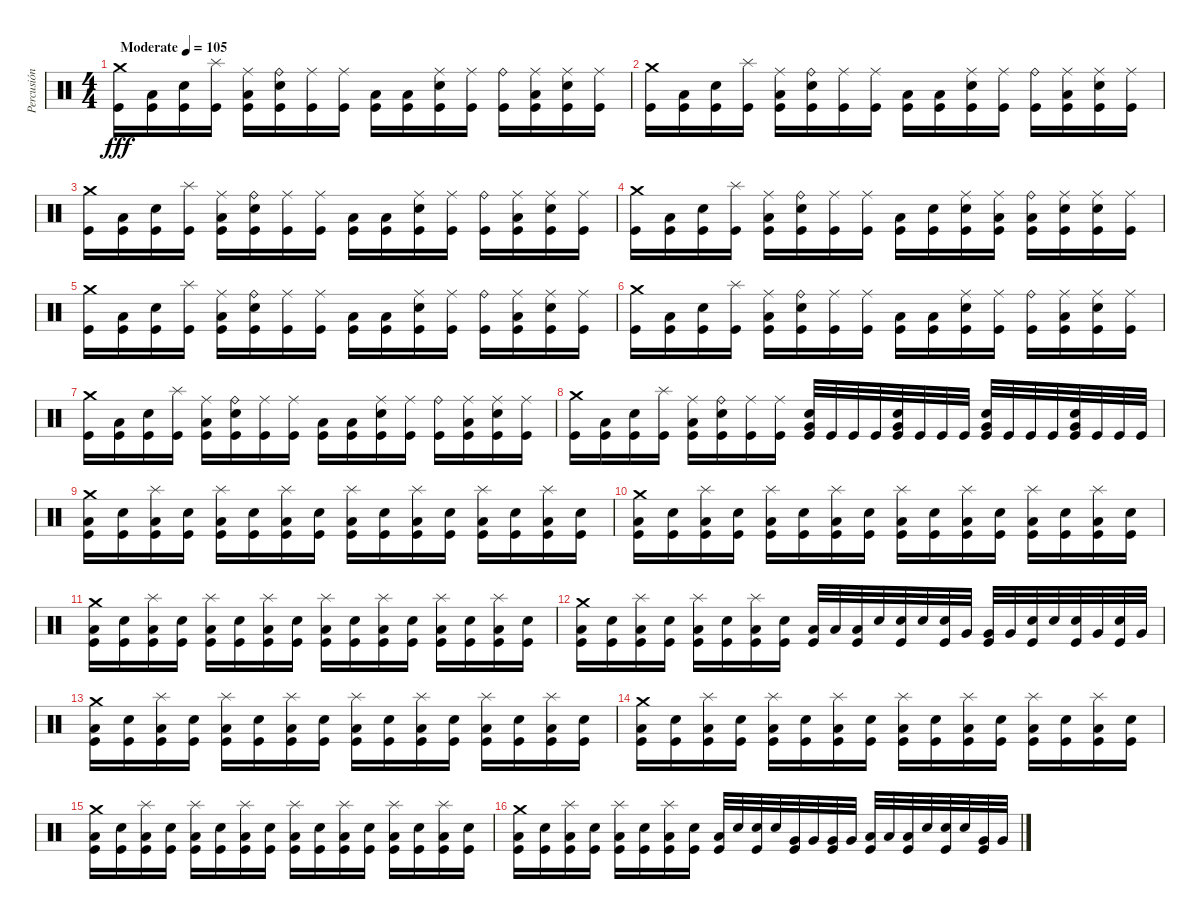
\track ("Percusión" "Percusión") {instrument percussion}
\staff {score}
\articulation defaults
\ts (4 4)
\tempo (105 "Moderate")
\clef neutral
\ks c
("Crash medium (hit)" "Kick (hit)").16{dy fff} ("Low Floor Tom (hit)" "Kick (hit)").16 ("Snare (hit) 2" "Kick (hit)").16 ("Splash (hit)" "Kick (hit)").16 ("Ride (middle)" "Low Floor Tom (hit)" "Kick (hit)").16 ("Ride (bell)" "Snare (hit) 2" "Kick (hit)").16 ("Ride (middle)" "Kick (hit)").16 ("Ride (middle)" "Kick (hit)").16 ("Low Floor Tom (hit)" "Kick (hit)").16 ("Low Floor Tom (hit)" "Kick (hit)").16 ("Ride (middle)" "Snare (hit) 2" "Kick (hit)").16 ("Ride (middle)" "Kick (hit)").16 ("Ride (bell)" "Kick (hit)").16 ("Ride (middle)" "Low Floor Tom (hit)" "Kick (hit)").16 ("Ride (middle)" "Snare (hit) 2" "Kick (hit)").16 ("Ride (middle)" "Kick (hit)").16 |
("Crash medium (hit)" "Kick (hit)").16 ("Low Floor Tom (hit)" "Kick (hit)").16 ("Snare (hit) 2" "Kick (hit)").16 ("Splash (hit)" "Kick (hit)").16 ("Ride (middle)" "Low Floor Tom (hit)" "Kick (hit)").16 ("Ride (bell)" "Snare (hit) 2" "Kick (hit)").16 ("Ride (middle)" "Kick (hit)").16 ("Ride (middle)" "Kick (hit)").16 ("Low Floor Tom (hit)" "Kick (hit)").16 ("Low Floor Tom (hit)" "Kick (hit)").16 ("Ride (middle)" "Snare (hit) 2" "Kick (hit)").16 ("Ride (middle)" "Kick (hit)").16 ("Ride (bell)" "Kick (hit)").16 ("Ride (middle)" "Low Floor Tom (hit)" "Kick (hit)").16 ("Ride (middle)" "Snare (hit) 2" "Kick (hit)").16 ("Ride (middle)" "Kick (hit)").16 |
("Crash medium (hit)" "Kick (hit)").16 ("Low Floor Tom (hit)" "Kick (hit)").16 ("Snare (hit) 2" "Kick (hit)").16 ("Splash (hit)" "Kick (hit)").16 ("Ride (middle)" "Low Floor Tom (hit)" "Kick (hit)").16 ("Ride (bell)" "Snare (hit) 2" "Kick (hit)").16 ("Ride (middle)" "Kick (hit)").16 ("Ride (middle)" "Kick (hit)").16 ("Low Floor Tom (hit)" "Kick (hit)").16 ("Low Floor Tom (hit)" "Kick (hit)").16 ("Ride (middle)" "Snare (hit) 2" "Kick (hit)").16 ("Ride (middle)" "Kick (hit)").16 ("Ride (bell)" "Kick (hit)").16 ("Ride (middle)" "Low Floor Tom (hit)" "Kick (hit)").16 ("Ride (middle)" "Snare (hit) 2" "Kick (hit)").16 ("Ride (middle)" "Kick (hit)").16 |
("Crash medium (hit)" "Kick (hit)").16 ("Low Floor Tom (hit)" "Kick (hit)").16 ("Snare (hit) 2" "Kick (hit)").16 ("Splash (hit)" "Kick (hit)").16 ("Ride (middle)" "Low Floor Tom (hit)" "Kick (hit)").16 ("Ride (bell)" "Snare (hit) 2" "Kick (hit)").16 ("Ride (middle)" "Kick (hit)").16 ("Ride (middle)" "Kick (hit)").16 ("Low Floor Tom (hit)" "Kick (hit)").16 ("Snare (hit) 2" "Kick (hit)").16 ("Ride (middle)" "Snare (hit) 2" "Kick (hit)").16 ("Ride (middle)" "Low Floor Tom (hit)" "Kick (hit)").16 ("Ride (bell)" "Low Floor Tom (hit)" "Kick (hit)").16 ("Ride (middle)" "Snare (hit) 2" "Kick (hit)").16 ("Ride (middle)" "Snare (hit) 2" "Kick (hit)").16 ("Ride (middle)" "Kick (hit)").16 |
("Crash medium (hit)" "Kick (hit)").16 ("Low Floor Tom (hit)" "Kick (hit)").16 ("Snare (hit) 2" "Kick (hit)").16 ("Splash (hit)" "Kick (hit)").16 ("Ride (middle)" "Low Floor Tom (hit)" "Kick (hit)").16 ("Ride (bell)" "Snare (hit) 2" "Kick (hit)").16 ("Ride (middle)" "Kick (hit)").16 ("Ride (middle)" "Kick (hit)").16 ("Low Floor Tom (hit)" "Kick (hit)").16 ("Low Floor Tom (hit)" "Kick (hit)").16 ("Ride (middle)" "Snare (hit) 2" "Kick (hit)").16 ("Ride (middle)" "Kick (hit)").16 ("Ride (bell)" "Kick (hit)").16 ("Ride (middle)" "Low Floor Tom (hit)" "Kick (hit)").16 ("Ride (middle)" "Snare (hit) 2" "Kick (hit)").16 ("Ride (middle)" "Kick (hit)").16 |
("Crash medium (hit)" "Kick (hit)").16 ("Low Floor Tom (hit)" "Kick (hit)").16 ("Snare (hit) 2" "Kick (hit)").16 ("Splash (hit)" "Kick (hit)").16 ("Ride (middle)" "Low Floor Tom (hit)" "Kick (hit)").16 ("Ride (bell)" "Snare (hit) 2" "Kick (hit)").16 ("Ride (middle)" "Kick (hit)").16 ("Ride (middle)" "Kick (hit)").16 ("Low Floor Tom (hit)" "Kick (hit)").16 ("Low Floor Tom (hit)" "Kick (hit)").16 ("Ride (middle)" "Snare (hit) 2" "Kick (hit)").16 ("Ride (middle)" "Kick (hit)").16 ("Ride (bell)" "Kick (hit)").16 ("Ride (middle)" "Low Floor Tom (hit)" "Kick (hit)").16 ("Ride (middle)" "Snare (hit) 2" "Kick (hit)").16 ("Ride (middle)" "Kick (hit)").16 |
("Crash medium (hit)" "Kick (hit)").16 ("Low Floor Tom (hit)" "Kick (hit)").16 ("Snare (hit) 2" "Kick (hit)").16 ("Splash (hit)" "Kick (hit)").16 ("Ride (middle)" "Low Floor Tom (hit)" "Kick (hit)").16 ("Ride (bell)" "Snare (hit) 2" "Kick (hit)").16 ("Ride (middle)" "Kick (hit)").16 ("Ride (middle)" "Kick (hit)").16 ("Low Floor Tom (hit)" "Kick (hit)").16 ("Low Floor Tom (hit)" "Kick (hit)").16 ("Ride (middle)" "Snare (hit) 2" "Kick (hit)").16 ("Ride (middle)" "Kick (hit)").16 ("Ride (bell)" "Kick (hit)").16 ("Ride (middle)" "Low Floor Tom (hit)" "Kick (hit)").16 ("Ride (middle)" "Snare (hit) 2" "Kick (hit)").16 ("Ride (middle)" "Kick (hit)").16 |
("Crash medium (hit)" "Kick (hit)").16 ("Low Floor Tom (hit)" "Kick (hit)").16 ("Snare (hit) 2" "Kick (hit)").16 ("Splash (hit)" "Kick (hit)").16 ("Ride (middle)" "Low Floor Tom (hit)" "Kick (hit)").16 ("Ride (bell)" "Snare (hit) 2" "Kick (hit)").16 ("Ride (middle)" "Kick (hit)").16 ("Ride (middle)" "Kick (hit)").16 ("Very Low Tom (hit)" "Snare (hit) 2" "Kick (hit)").32 "Kick (hit)".32 "Kick (hit)".32 "Kick (hit)".32 ("Very Low Tom (hit)" "Snare (hit) 2" "Kick (hit)").32 "Kick (hit)".32 "Kick (hit)".32 "Kick (hit)".32 ("Very Low Tom (hit)" "Snare (hit) 2" "Kick (hit)").32 "Kick (hit)".32 "Kick (hit)".32 "Kick (hit)".32 ("Very Low Tom (hit)" "Snare (hit) 2" "Kick (hit)").32 "Kick (hit)".32 "Kick (hit)".32 "Kick (hit)".32 |
("Crash medium (hit)" "Low Floor Tom (hit)" "Kick (hit)").16 ("Snare (hit) 2" "Kick (hit)").16 ("Splash (hit)" "Low Floor Tom (hit)" "Kick (hit)").16 ("Snare (hit) 2" "Kick (hit)").16 ("Splash (hit)" "Low Floor Tom (hit)" "Kick (hit)").16 ("Snare (hit) 2" "Kick (hit)").16 ("Splash (hit)" "Low Floor Tom (hit)" "Kick (hit)").16 ("Snare (hit) 2" "Kick (hit)").16 ("Splash (hit)" "Low Floor Tom (hit)" "Kick (hit)").16 ("Snare (hit) 2" "Kick (hit)").16 ("Splash (hit)" "Low Floor Tom (hit)" "Kick (hit)").16 ("Snare (hit) 2" "Kick (hit)").16 ("Splash (hit)" "Low Floor Tom (hit)" "Kick (hit)").16 ("Snare (hit) 2" "Kick (hit)").16 ("Splash (hit)" "Low Floor Tom (hit)" "Kick (hit)").16 ("Snare (hit) 2" "Kick (hit)").16 |
("Crash medium (hit)" "Low Floor Tom (hit)" "Kick (hit)").16 ("Snare (hit) 2" "Kick (hit)").16 ("Splash (hit)" "Low Floor Tom (hit)" "Kick (hit)").16 ("Snare (hit) 2" "Kick (hit)").16 ("Splash (hit)" "Low Floor Tom (hit)" "Kick (hit)").16 ("Snare (hit) 2" "Kick (hit)").16 ("Splash (hit)" "Low Floor Tom (hit)" "Kick (hit)").16 ("Snare (hit) 2" "Kick (hit)").16 ("Splash (hit)" "Low Floor Tom (hit)" "Kick (hit)").16 ("Snare (hit) 2" "Kick (hit)").16 ("Splash (hit)" "Low Floor Tom (hit)" "Kick (hit)").16 ("Snare (hit) 2" "Kick (hit)").16 ("Splash (hit)" "Low Floor Tom (hit)" "Kick (hit)").16 ("Snare (hit) 2" "Kick (hit)").16 ("Splash (hit)" "Low Floor Tom (hit)" "Kick (hit)").16 ("Snare (hit) 2" "Kick (hit)").16 |
("Crash medium (hit)" "Low Floor Tom (hit)" "Kick (hit)").16 ("Snare (hit) 2" "Kick (hit)").16 ("Splash (hit)" "Low Floor Tom (hit)" "Kick (hit)").16 ("Snare (hit) 2" "Kick (hit)").16 ("Splash (hit)" "Low Floor Tom (hit)" "Kick (hit)").16 ("Snare (hit) 2" "Kick (hit)").16 ("Splash (hit)" "Low Floor Tom (hit)" "Kick (hit)").16 ("Snare (hit) 2" "Kick (hit)").16 ("Splash (hit)" "Low Floor Tom (hit)" "Kick (hit)").16 ("Snare (hit) 2" "Kick (hit)").16 ("Splash (hit)" "Low Floor Tom (hit)" "Kick (hit)").16 ("Snare (hit) 2" "Kick (hit)").16 ("Splash (hit)" "Low Floor Tom (hit)" "Kick (hit)").16 ("Snare (hit) 2" "Kick (hit)").16 ("Splash (hit)" "Low Floor Tom (hit)" "Kick (hit)").16 ("Snare (hit) 2" "Kick (hit)").16 |
("Crash medium (hit)" "Low Floor Tom (hit)" "Kick (hit)").16 ("Snare (hit) 2" "Kick (hit)").16 ("Splash (hit)" "Low Floor Tom (hit)" "Kick (hit)").16 ("Snare (hit) 2" "Kick (hit)").16 ("Splash (hit)" "Low Floor Tom (hit)" "Kick (hit)").16 ("Snare (hit) 2" "Kick (hit)").16 ("Splash (hit)" "Low Floor Tom (hit)" "Kick (hit)").16 ("Snare (hit) 2" "Kick (hit)").16 ("Low Floor Tom (hit)" "Kick (hit)").32 "Low Floor Tom (hit)".32 ("Low Floor Tom (hit)" "Kick (hit)").32 "Snare (hit) 2".32 ("Snare (hit) 2" "Kick (hit)").32 "Snare (hit) 2".32 ("Snare (hit) 2" "Kick (hit)").32 "Very Low Tom (hit)".32 ("Very Low Tom (hit)" "Kick (hit)").32 "Very Low Tom (hit)".32 ("Snare (hit) 2" "Kick (hit)").32 "Snare (hit) 2".32 ("Snare (hit) 2" "Kick (hit)").32 "Very Low Tom (hit)".32 ("Snare (hit) 2" "Kick (hit)").32 "Very Low Tom (hit)".32 |
("Crash medium (hit)" "Low Floor Tom (hit)" "Kick (hit)").16 ("Snare (hit) 2" "Kick (hit)").16 ("Splash (hit)" "Low Floor Tom (hit)" "Kick (hit)").16 ("Snare (hit) 2" "Kick (hit)").16 ("Splash (hit)" "Low Floor Tom (hit)" "Kick (hit)").16 ("Snare (hit) 2" "Kick (hit)").16 ("Splash (hit)" "Low Floor Tom (hit)" "Kick (hit)").16 ("Snare (hit) 2" "Kick (hit)").16 ("Splash (hit)" "Low Floor Tom (hit)" "Kick (hit)").16 ("Snare (hit) 2" "Kick (hit)").16 ("Splash (hit)" "Low Floor Tom (hit)" "Kick (hit)").16 ("Snare (hit) 2" "Kick (hit)").16 ("Splash (hit)" "Low Floor Tom (hit)" "Kick (hit)").16 ("Snare (hit) 2" "Kick (hit)").16 ("Splash (hit)" "Low Floor Tom (hit)" "Kick (hit)").16 ("Snare (hit) 2" "Kick (hit)").16 |
("Crash medium (hit)" "Low Floor Tom (hit)" "Kick (hit)").16 ("Snare (hit) 2" "Kick (hit)").16 ("Splash (hit)" "Low Floor Tom (hit)" "Kick (hit)").16 ("Snare (hit) 2" "Kick (hit)").16 ("Splash (hit)" "Low Floor Tom (hit)" "Kick (hit)").16 ("Snare (hit) 2" "Kick (hit)").16 ("Splash (hit)" "Low Floor Tom (hit)" "Kick (hit)").16 ("Snare (hit) 2" "Kick (hit)").16 ("Splash (hit)" "Low Floor Tom (hit)" "Kick (hit)").16 ("Snare (hit) 2" "Kick (hit)").16 ("Splash (hit)" "Low Floor Tom (hit)" "Kick (hit)").16 ("Snare (hit) 2" "Kick (hit)").16 ("Splash (hit)" "Low Floor Tom (hit)" "Kick (hit)").16 ("Snare (hit) 2" "Kick (hit)").16 ("Splash (hit)" "Low Floor Tom (hit)" "Kick (hit)").16 ("Snare (hit) 2" "Kick (hit)").16 |
("Crash medium (hit)" "Low Floor Tom (hit)" "Kick (hit)").16 ("Snare (hit) 2" "Kick (hit)").16 ("Splash (hit)" "Low Floor Tom (hit)" "Kick (hit)").16 ("Snare (hit) 2" "Kick (hit)").16 ("Splash (hit)" "Low Floor Tom (hit)" "Kick (hit)").16 ("Snare (hit) 2" "Kick (hit)").16 ("Splash (hit)" "Low Floor Tom (hit)" "Kick (hit)").16 ("Snare (hit) 2" "Kick (hit)").16 ("Splash (hit)" "Low Floor Tom (hit)" "Kick (hit)").16 ("Snare (hit) 2" "Kick (hit)").16 ("Splash (hit)" "Low Floor Tom (hit)" "Kick (hit)").16 ("Snare (hit) 2" "Kick (hit)").16 ("Splash (hit)" "Low Floor Tom (hit)" "Kick (hit)").16 ("Snare (hit) 2" "Kick (hit)").16 ("Splash (hit)" "Low Floor Tom (hit)" "Kick (hit)").16 ("Snare (hit) 2" "Kick (hit)").16 |
("Crash medium (hit)" "Low Floor Tom (hit)" "Kick (hit)").16 ("Snare (hit) 2" "Kick (hit)").16 ("Splash (hit)" "Low Floor Tom (hit)" "Kick (hit)").16 ("Snare (hit) 2" "Kick (hit)").16 ("Splash (hit)" "Low Floor Tom (hit)" "Kick (hit)").16 ("Snare (hit) 2" "Kick (hit)").16 ("Splash (hit)" "Low Floor Tom (hit)" "Kick (hit)").16 ("Snare (hit) 2" "Kick (hit)").16 ("Low Floor Tom (hit)" "Kick (hit)").32 "Snare (hit) 2".32 ("Snare (hit) 2" "Kick (hit)").32 "Snare (hit) 2".32 ("Very Low Tom (hit)" "Kick (hit)").32 "Very Low Tom (hit)".32 ("Very Low Tom (hit)" "Kick (hit)").32 "Very Low Tom (hit)".32 ("Low Floor Tom (hit)" "Kick (hit)").32 "Low Floor Tom (hit)".32 ("Low Floor Tom (hit)" "Kick (hit)").32 "Snare (hit) 2".32 ("Snare (hit) 2" "Kick (hit)").32 "Snare (hit) 2".32 ("Very Low Tom (hit)" "Kick (hit)").32 "Very Low Tom (hit)".32
